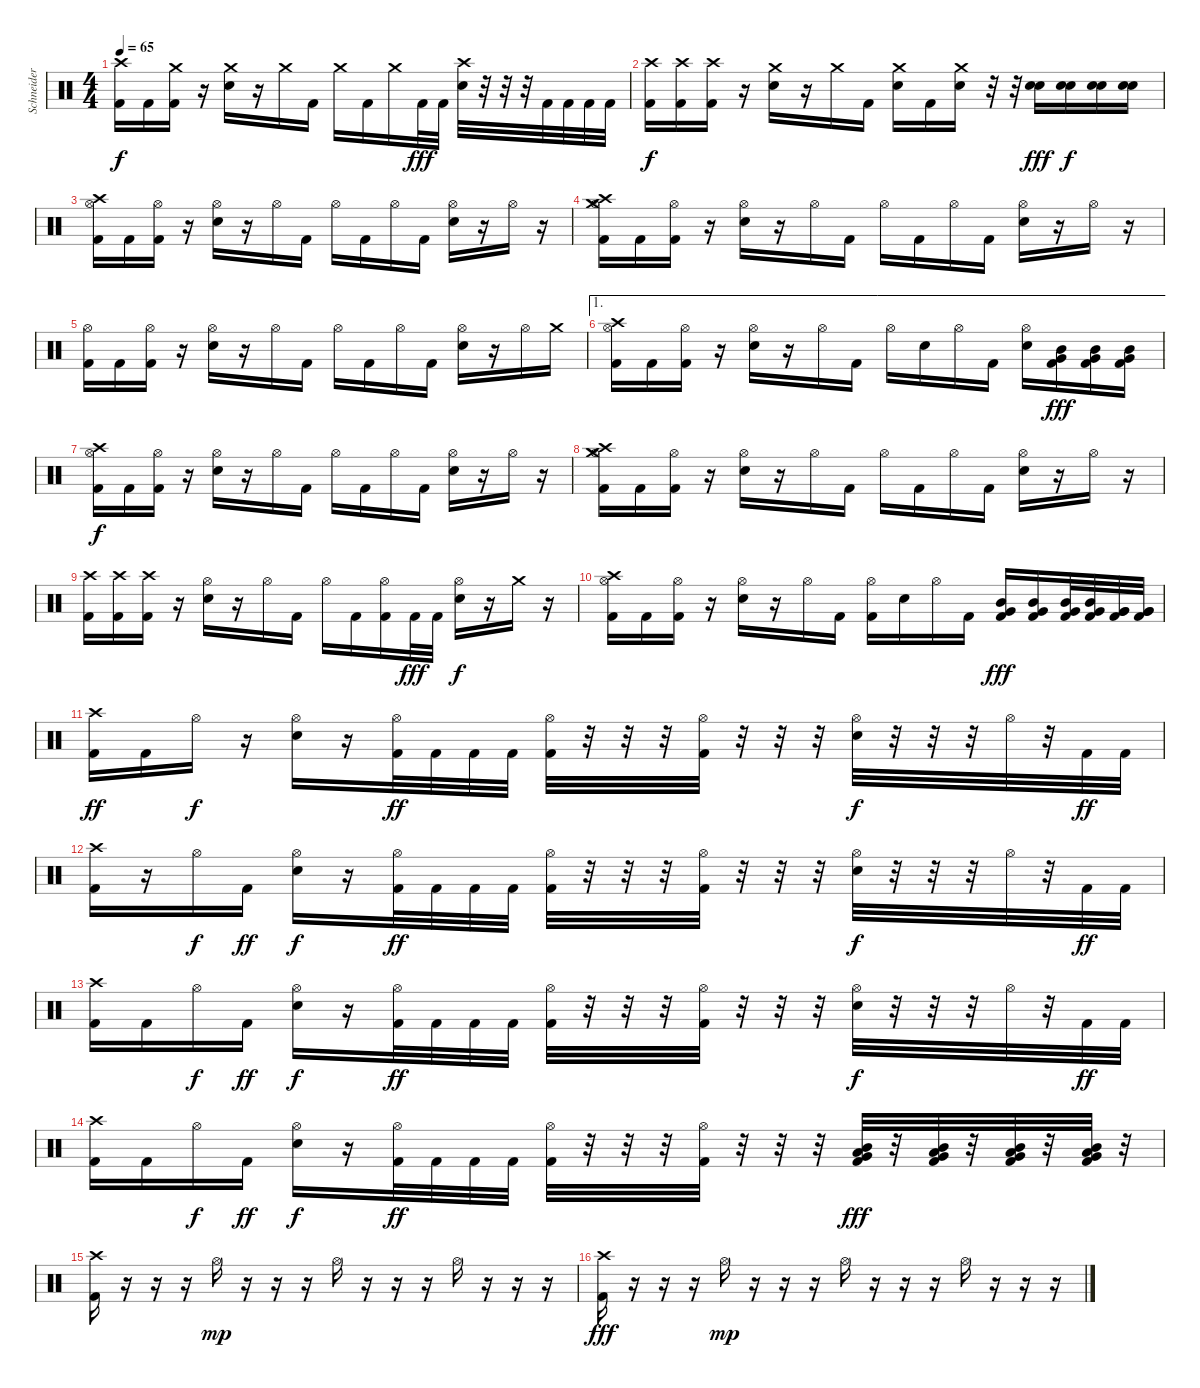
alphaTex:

\track ("Schneider" "Schneider") {instrument percussion}
\staff {score}
\articulation defaults
\ts (4 4)
\tempo 65
\clef neutral
\ks c
("Crash high (hit)" "Kick (hit) 2").16{dy f} "Kick (hit) 2".16 ("Crash medium (hit)" "Kick (hit) 2").16 r.16 ("Crash medium (hit)" "Electric Snare (hit)").16 r.16 "Crash medium (hit)".16 "Kick (hit) 2".16 "Crash medium (hit)".16 "Kick (hit) 2".16 "Crash medium (hit)".16 "Kick (hit) 2".32{dy fff} "Kick (hit) 2".32 ("Crash high (hit)" "Electric Snare (hit)").32 r.32 r.32 r.32 "Kick (hit) 2".32 "Kick (hit) 2".32 "Kick (hit) 2".32 "Kick (hit) 2".32 |
("Crash high (hit)" "Kick (hit) 2").16{dy f} ("Crash high (hit)" "Kick (hit) 2").16 ("Crash high (hit)" "Kick (hit) 2").16 r.16 ("Crash medium (hit)" "Electric Snare (hit)").16 r.16 "Crash medium (hit)".16 "Kick (hit) 2".16 ("Crash medium (hit)" "Electric Snare (hit)").16 "Kick (hit) 2".16 ("Crash medium (hit)" "Electric Snare (hit)").16 r.32 r.32 ("Electric Snare (hit)" "Electric Snare (hit)").16{dy fff} ("Electric Snare (hit)" "Electric Snare (hit)").16{dy f} ("Electric Snare (hit)" "Electric Snare (hit)").16 ("Electric Snare (hit)" "Electric Snare (hit)").16 |
("Crash high (hit)" "Hi-Hat (open)" "Kick (hit) 2").16 "Kick (hit) 2".16 ("Hi-Hat (open)" "Kick (hit) 2").16 r.16 ("Hi-Hat (open)" "Electric Snare (hit)").16 r.16 "Hi-Hat (open)".16 "Kick (hit) 2".16 "Hi-Hat (open)".16 "Kick (hit) 2".16 "Hi-Hat (open)".16 "Kick (hit) 2".16 ("Hi-Hat (open)" "Electric Snare (hit)").16 r.16 "Hi-Hat (open)".16 r.16 |
("Crash medium (hit)" "Crash high (hit)" "Hi-Hat (open)" "Kick (hit) 2").16 "Kick (hit) 2".16 ("Hi-Hat (open)" "Kick (hit) 2").16 r.16 ("Hi-Hat (open)" "Electric Snare (hit)").16 r.16 "Hi-Hat (open)".16 "Kick (hit) 2".16 "Hi-Hat (open)".16 "Kick (hit) 2".16 "Hi-Hat (open)".16 "Kick (hit) 2".16 ("Hi-Hat (open)" "Electric Snare (hit)").16 r.16 "Hi-Hat (open)".16 r.16 |
("Hi-Hat (open)" "Kick (hit) 2").16 "Kick (hit) 2".16 ("Hi-Hat (open)" "Kick (hit) 2").16 r.16 ("Hi-Hat (open)" "Electric Snare (hit)").16 r.16 "Hi-Hat (open)".16 "Kick (hit) 2".16 "Hi-Hat (open)".16 "Kick (hit) 2".16 "Hi-Hat (open)".16 "Kick (hit) 2".16 ("Hi-Hat (open)" "Electric Snare (hit)").16 r.16 "Hi-Hat (open)".16 "Crash medium (hit)".16 |
\ae 1
("Crash high (hit)" "Hi-Hat (open)" "Kick (hit) 2").16 "Kick (hit) 2".16 ("Hi-Hat (open)" "Kick (hit) 2").16 r.16 ("Hi-Hat (open)" "Electric Snare (hit)").16 r.16 "Hi-Hat (open)".16 "Kick (hit) 2".16 "Hi-Hat (open)".16 "Electric Snare (hit)".16 "Hi-Hat (open)".16 "Kick (hit) 2".16 ("Hi-Hat (open)" "Electric Snare (hit)").16 ("Kick (hit) 2" "Very Low Tom (hit)" "Mid Tom (hit)").16{dy fff} ("Kick (hit) 2" "Very Low Tom (hit)" "Mid Tom (hit)").16 ("Kick (hit) 2" "Very Low Tom (hit)" "Mid Tom (hit)").16 |
("Crash high (hit)" "Hi-Hat (open)" "Kick (hit) 2").16{dy f} "Kick (hit) 2".16 ("Hi-Hat (open)" "Kick (hit) 2").16 r.16 ("Hi-Hat (open)" "Electric Snare (hit)").16 r.16 "Hi-Hat (open)".16 "Kick (hit) 2".16 "Hi-Hat (open)".16 "Kick (hit) 2".16 "Hi-Hat (open)".16 "Kick (hit) 2".16 ("Hi-Hat (open)" "Electric Snare (hit)").16 r.16 "Hi-Hat (open)".16 r.16 |
("Crash medium (hit)" "Crash high (hit)" "Hi-Hat (open)" "Kick (hit) 2").16 "Kick (hit) 2".16 ("Hi-Hat (open)" "Kick (hit) 2").16 r.16 ("Hi-Hat (open)" "Electric Snare (hit)").16 r.16 "Hi-Hat (open)".16 "Kick (hit) 2".16 "Hi-Hat (open)".16 "Kick (hit) 2".16 "Hi-Hat (open)".16 "Kick (hit) 2".16 ("Hi-Hat (open)" "Electric Snare (hit)").16 r.16 "Hi-Hat (open)".16 r.16 |
("Crash high (hit)" "Kick (hit) 2").16 ("Crash high (hit)" "Kick (hit) 2").16 ("Crash high (hit)" "Kick (hit) 2").16 r.16 ("Hi-Hat (open)" "Electric Snare (hit)").16 r.16 "Hi-Hat (open)".16 "Kick (hit) 2".16 "Hi-Hat (open)".16 "Kick (hit) 2".16 ("Hi-Hat (open)" "Kick (hit) 2").16 "Kick (hit) 2".32{dy fff} "Kick (hit) 2".32 ("Hi-Hat (open)" "Electric Snare (hit)").16{dy f} r.16 "Crash medium (hit)".16 r.16 |
("Crash high (hit)" "Hi-Hat (open)" "Kick (hit) 2").16 "Kick (hit) 2".16 ("Hi-Hat (open)" "Kick (hit) 2").16 r.16 ("Hi-Hat (open)" "Electric Snare (hit)").16 r.16 "Hi-Hat (open)".16 "Kick (hit) 2".16 ("Hi-Hat (open)" "Kick (hit) 2").16 "Electric Snare (hit)".16 "Hi-Hat (open)".16 "Kick (hit) 2".16 ("Kick (hit) 2" "Mid Tom (hit)" "Very Low Tom (hit)").16{dy fff} ("Kick (hit) 2" "Mid Tom (hit)" "Very Low Tom (hit)").16 ("Kick (hit) 2" "Mid Tom (hit)" "Very Low Tom (hit)").32 ("Kick (hit) 2" "Mid Tom (hit)" "Very Low Tom (hit)").32 ("Kick (hit) 2" "Very Low Tom (hit)" "Very Low Tom (hit)").32 ("Kick (hit) 2" "Very Low Tom (hit)" "Very Low Tom (hit)").32 |
("Crash high (hit)" "Kick (hit) 2").16{dy ff} "Kick (hit) 2".16 "Hi-Hat (open)".16{dy f} r.16 ("Hi-Hat (open)" "Snare (hit) 2").16 r.16 ("Hi-Hat (open)" "Kick (hit) 2").32{dy ff} "Kick (hit) 2".32 "Kick (hit) 2".32 "Kick (hit) 2".32 ("Hi-Hat (open)" "Kick (hit) 2").32 r.32 r.32 r.32 ("Hi-Hat (open)" "Kick (hit) 2").32 r.32 r.32 r.32 ("Hi-Hat (open)" "Snare (hit) 2").32{dy f} r.32 r.32 r.32 "Hi-Hat (open)".32 r.32 "Kick (hit) 2".32{dy ff} "Kick (hit) 2".32 |
("Crash high (hit)" "Kick (hit) 2").16 r.16 "Hi-Hat (open)".16{dy f} "Kick (hit) 2".16{dy ff} ("Hi-Hat (open)" "Snare (hit) 2").16{dy f} r.16 ("Hi-Hat (open)" "Kick (hit) 2").32{dy ff} "Kick (hit) 2".32 "Kick (hit) 2".32 "Kick (hit) 2".32 ("Hi-Hat (open)" "Kick (hit) 2").32 r.32 r.32 r.32 ("Hi-Hat (open)" "Kick (hit) 2").32 r.32 r.32 r.32 ("Hi-Hat (open)" "Snare (hit) 2").32{dy f} r.32 r.32 r.32 "Hi-Hat (open)".32 r.32 "Kick (hit) 2".32{dy ff} "Kick (hit) 2".32 |
("Crash high (hit)" "Kick (hit) 2").16 "Kick (hit) 2".16 "Hi-Hat (open)".16{dy f} "Kick (hit) 2".16{dy ff} ("Hi-Hat (open)" "Snare (hit) 2").16{dy f} r.16 ("Hi-Hat (open)" "Kick (hit) 2").32{dy ff} "Kick (hit) 2".32 "Kick (hit) 2".32 "Kick (hit) 2".32 ("Hi-Hat (open)" "Kick (hit) 2").32 r.32 r.32 r.32 ("Hi-Hat (open)" "Kick (hit) 2").32 r.32 r.32 r.32 ("Hi-Hat (open)" "Snare (hit) 2").32{dy f} r.32 r.32 r.32 "Hi-Hat (open)".32 r.32 "Kick (hit) 2".32{dy ff} "Kick (hit) 2".32 |
("Crash high (hit)" "Kick (hit) 2").16 "Kick (hit) 2".16 "Hi-Hat (open)".16{dy f} "Kick (hit) 2".16{dy ff} ("Hi-Hat (open)" "Snare (hit) 2").16{dy f} r.16 ("Hi-Hat (open)" "Kick (hit) 2").32{dy ff} "Kick (hit) 2".32 "Kick (hit) 2".32 "Kick (hit) 2".32 ("Hi-Hat (open)" "Kick (hit) 2").32 r.32 r.32 r.32 ("Hi-Hat (open)" "Kick (hit) 2").32 r.32 r.32 r.32 ("Kick (hit) 2" "Mid Tom (hit)" "Very Low Tom (hit)" "Low Tom (hit)").32{dy fff} r.32 ("Kick (hit) 2" "Mid Tom (hit)" "Very Low Tom (hit)" "Low Tom (hit)").32 r.32 ("Kick (hit) 2" "Mid Tom (hit)" "Very Low Tom (hit)" "Low Tom (hit)").32 r.32 ("Kick (hit) 2" "Mid Tom (hit)" "Very Low Tom (hit)" "Low Tom (hit)").32 r.32 |
("Crash high (hit)" "Kick (hit) 2").16 r.16 r.16 r.16 "Hi-Hat (open)".16{dy mp} r.16 r.16 r.16 "Hi-Hat (open)".16 r.16 r.16 r.16 "Hi-Hat (open)".16 r.16 r.16 r.16 |
("Crash high (hit)" "Kick (hit) 2").16{dy fff} r.16 r.16 r.16 "Hi-Hat (open)".16{dy mp} r.16 r.16 r.16 "Hi-Hat (open)".16 r.16 r.16 r.16 "Hi-Hat (open)".16 r.16 r.16 r.16
